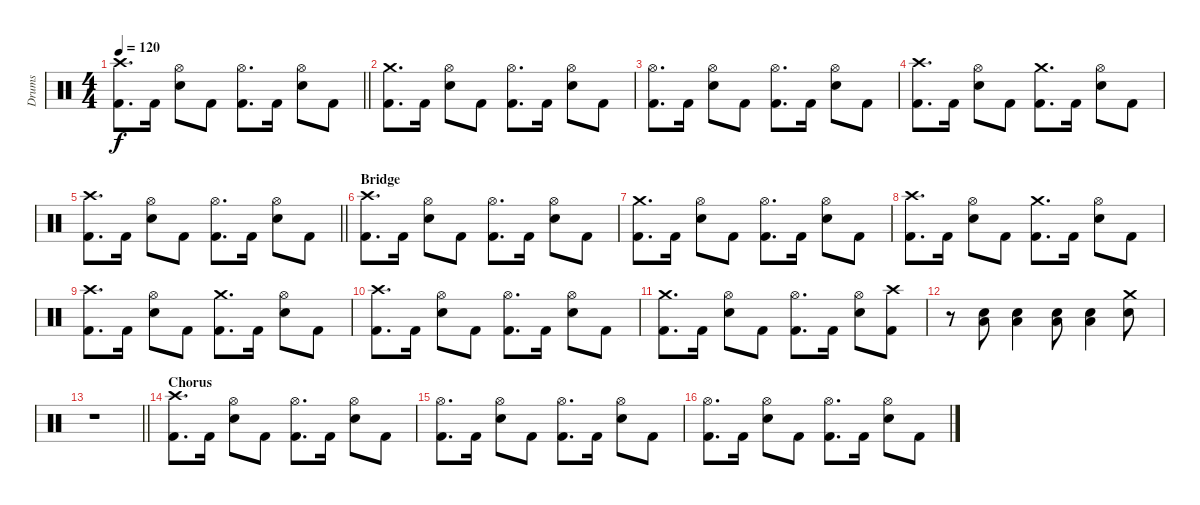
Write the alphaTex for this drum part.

\track ("Drums" "Drums") {instrument percussion}
\staff {score}
\articulation defaults
\ts (4 4)
\tempo 120
\clef neutral
\barLineRight lightlight
\ks c
("Crash high (hit)" "Kick (hit) 2").8{d dy f} "Kick (hit) 2".16 ("Hi-Hat (open)" "Snare (hit) 2").8 "Kick (hit) 2".8 ("Hi-Hat (open)" "Kick (hit) 2").8{d} "Kick (hit) 2".16 ("Hi-Hat (open)" "Snare (hit) 2").8 "Kick (hit) 2".8 |
("Crash medium (hit)" "Kick (hit) 2").8{d} "Kick (hit) 2".16 ("Hi-Hat (open)" "Snare (hit) 2").8 "Kick (hit) 2".8 ("Hi-Hat (open)" "Kick (hit) 2").8{d} "Kick (hit) 2".16 ("Hi-Hat (open)" "Snare (hit) 2").8 "Kick (hit) 2".8 |
("Hi-Hat (open)" "Kick (hit) 2").8{d} "Kick (hit) 2".16 ("Hi-Hat (open)" "Snare (hit) 2").8 "Kick (hit) 2".8 ("Hi-Hat (open)" "Kick (hit) 2").8{d} "Kick (hit) 2".16 ("Hi-Hat (open)" "Snare (hit) 2").8 "Kick (hit) 2".8 |
("Crash high (hit)" "Kick (hit) 2").8{d} "Kick (hit) 2".16 ("Hi-Hat (open)" "Snare (hit) 2").8 "Kick (hit) 2".8 ("Crash medium (hit)" "Kick (hit) 2").8{d} "Kick (hit) 2".16 ("Hi-Hat (open)" "Snare (hit) 2").8 "Kick (hit) 2".8 |
\barLineRight lightlight
("Crash high (hit)" "Kick (hit) 2").8{d} "Kick (hit) 2".16 ("Hi-Hat (open)" "Snare (hit) 2").8 "Kick (hit) 2".8 ("Hi-Hat (open)" "Kick (hit) 2").8{d} "Kick (hit) 2".16 ("Hi-Hat (open)" "Snare (hit) 2").8 "Kick (hit) 2".8 |
\section ("" "Bridge")
("Crash high (hit)" "Kick (hit) 2").8{d} "Kick (hit) 2".16 ("Hi-Hat (open)" "Snare (hit) 2").8 "Kick (hit) 2".8 ("Hi-Hat (open)" "Kick (hit) 2").8{d} "Kick (hit) 2".16 ("Hi-Hat (open)" "Snare (hit) 2").8 "Kick (hit) 2".8 |
("Crash medium (hit)" "Kick (hit) 2").8{d} "Kick (hit) 2".16 ("Hi-Hat (open)" "Snare (hit) 2").8 "Kick (hit) 2".8 ("Hi-Hat (open)" "Kick (hit) 2").8{d} "Kick (hit) 2".16 ("Hi-Hat (open)" "Snare (hit) 2").8 "Kick (hit) 2".8 |
("Crash high (hit)" "Kick (hit) 2").8{d} "Kick (hit) 2".16 ("Hi-Hat (open)" "Snare (hit) 2").8 "Kick (hit) 2".8 ("Crash medium (hit)" "Kick (hit) 2").8{d} "Kick (hit) 2".16 ("Hi-Hat (open)" "Snare (hit) 2").8 "Kick (hit) 2".8 |
("Crash high (hit)" "Kick (hit) 2").8{d} "Kick (hit) 2".16 ("Hi-Hat (open)" "Snare (hit) 2").8 "Kick (hit) 2".8 ("Crash medium (hit)" "Kick (hit) 2").8{d} "Kick (hit) 2".16 ("Hi-Hat (open)" "Snare (hit) 2").8 "Kick (hit) 2".8 |
("Crash high (hit)" "Kick (hit) 2").8{d} "Kick (hit) 2".16 ("Hi-Hat (open)" "Snare (hit) 2").8 "Kick (hit) 2".8 ("Hi-Hat (open)" "Kick (hit) 2").8{d} "Kick (hit) 2".16 ("Hi-Hat (open)" "Snare (hit) 2").8 "Kick (hit) 2".8 |
("Crash medium (hit)" "Kick (hit) 2").8{d} "Kick (hit) 2".16 ("Hi-Hat (open)" "Snare (hit) 2").8 "Kick (hit) 2".8 ("Hi-Hat (open)" "Kick (hit) 2").8{d} "Kick (hit) 2".16 ("Hi-Hat (open)" "Snare (hit) 2").8 ("Crash high (hit)" "Kick (hit) 2").8 |
r.8 ("Snare (hit) 2" "Low Tom (hit)").8 ("Snare (hit) 2" "Low Tom (hit)").4 ("Snare (hit) 2" "Low Tom (hit)").8 ("Snare (hit) 2" "Low Tom (hit)").4 ("Crash medium (hit)" "Snare (hit) 2").8 |
\barLineRight lightlight
r.1 |
\section ("" "Chorus")
("Crash high (hit)" "Kick (hit) 2").8{d} "Kick (hit) 2".16 ("Hi-Hat (open)" "Snare (hit) 2").8 "Kick (hit) 2".8 ("Hi-Hat (open)" "Kick (hit) 2").8{d} "Kick (hit) 2".16 ("Hi-Hat (open)" "Snare (hit) 2").8 "Kick (hit) 2".8 |
("Hi-Hat (open)" "Kick (hit) 2").8{d} "Kick (hit) 2".16 ("Hi-Hat (open)" "Snare (hit) 2").8 "Kick (hit) 2".8 ("Hi-Hat (open)" "Kick (hit) 2").8{d} "Kick (hit) 2".16 ("Hi-Hat (open)" "Snare (hit) 2").8 "Kick (hit) 2".8 |
("Hi-Hat (open)" "Kick (hit) 2").8{d} "Kick (hit) 2".16 ("Hi-Hat (open)" "Snare (hit) 2").8 "Kick (hit) 2".8 ("Hi-Hat (open)" "Kick (hit) 2").8{d} "Kick (hit) 2".16 ("Hi-Hat (open)" "Snare (hit) 2").8 "Kick (hit) 2".8
